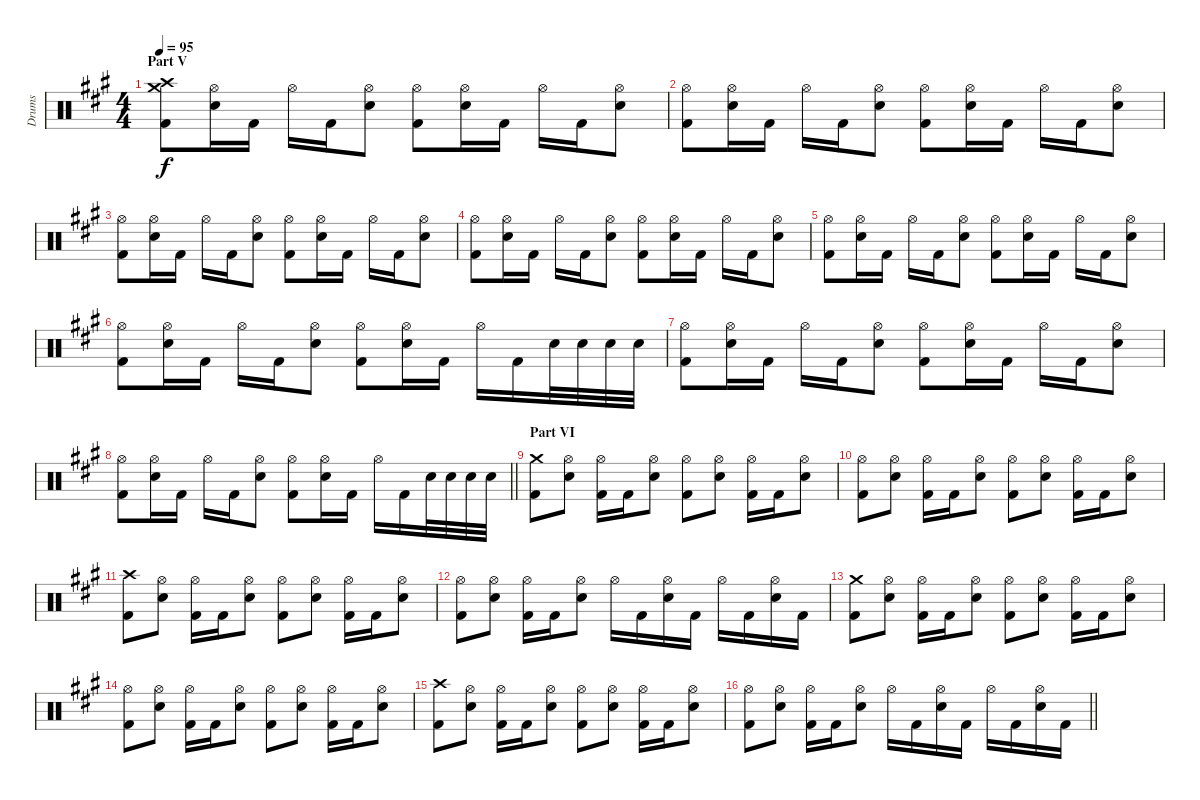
\track ("Drums" "Drums") {instrument percussion}
\staff {score}
\articulation defaults
\ts (4 4)
\section ("" "Part V")
\tempo 95
\clef neutral
\ks a
("Crash high (hit)" "Crash medium (hit)" "Kick (hit) 2").8{dy f} ("Hi-Hat (open)" "Electric Snare (hit)").16 "Kick (hit) 2".16 "Hi-Hat (open)".16 "Kick (hit) 2".16 ("Hi-Hat (open)" "Electric Snare (hit)").8 ("Hi-Hat (open)" "Kick (hit) 2").8 ("Hi-Hat (open)" "Electric Snare (hit)").16 "Kick (hit) 2".16 "Hi-Hat (open)".16 "Kick (hit) 2".16 ("Hi-Hat (open)" "Electric Snare (hit)").8 |
("Hi-Hat (open)" "Kick (hit) 2").8 ("Hi-Hat (open)" "Electric Snare (hit)").16 "Kick (hit) 2".16 "Hi-Hat (open)".16 "Kick (hit) 2".16 ("Hi-Hat (open)" "Electric Snare (hit)").8 ("Hi-Hat (open)" "Kick (hit) 2").8 ("Hi-Hat (open)" "Electric Snare (hit)").16 "Kick (hit) 2".16 "Hi-Hat (open)".16 "Kick (hit) 2".16 ("Hi-Hat (open)" "Electric Snare (hit)").8 |
("Hi-Hat (open)" "Kick (hit) 2").8 ("Hi-Hat (open)" "Electric Snare (hit)").16 "Kick (hit) 2".16 "Hi-Hat (open)".16 "Kick (hit) 2".16 ("Hi-Hat (open)" "Electric Snare (hit)").8 ("Hi-Hat (open)" "Kick (hit) 2").8 ("Hi-Hat (open)" "Electric Snare (hit)").16 "Kick (hit) 2".16 "Hi-Hat (open)".16 "Kick (hit) 2".16 ("Hi-Hat (open)" "Electric Snare (hit)").8 |
("Hi-Hat (open)" "Kick (hit) 2").8 ("Hi-Hat (open)" "Electric Snare (hit)").16 "Kick (hit) 2".16 "Hi-Hat (open)".16 "Kick (hit) 2".16 ("Hi-Hat (open)" "Electric Snare (hit)").8 ("Hi-Hat (open)" "Kick (hit) 2").8 ("Hi-Hat (open)" "Electric Snare (hit)").16 "Kick (hit) 2".16 "Hi-Hat (open)".16 "Kick (hit) 2".16 ("Hi-Hat (open)" "Electric Snare (hit)").8 |
("Hi-Hat (open)" "Kick (hit) 2").8 ("Hi-Hat (open)" "Electric Snare (hit)").16 "Kick (hit) 2".16 "Hi-Hat (open)".16 "Kick (hit) 2".16 ("Hi-Hat (open)" "Electric Snare (hit)").8 ("Hi-Hat (open)" "Kick (hit) 2").8 ("Hi-Hat (open)" "Electric Snare (hit)").16 "Kick (hit) 2".16 "Hi-Hat (open)".16 "Kick (hit) 2".16 ("Hi-Hat (open)" "Electric Snare (hit)").8 |
("Hi-Hat (open)" "Kick (hit) 2").8 ("Hi-Hat (open)" "Electric Snare (hit)").16 "Kick (hit) 2".16 "Hi-Hat (open)".16 "Kick (hit) 2".16 ("Hi-Hat (open)" "Electric Snare (hit)").8 ("Hi-Hat (open)" "Kick (hit) 2").8 ("Hi-Hat (open)" "Electric Snare (hit)").16 "Kick (hit) 2".16 "Hi-Hat (open)".16 "Kick (hit) 2".16 "Electric Snare (hit)".32 "Electric Snare (hit)".32 "Electric Snare (hit)".32 "Electric Snare (hit)".32 |
("Hi-Hat (open)" "Kick (hit) 2").8 ("Hi-Hat (open)" "Electric Snare (hit)").16 "Kick (hit) 2".16 "Hi-Hat (open)".16 "Kick (hit) 2".16 ("Hi-Hat (open)" "Electric Snare (hit)").8 ("Hi-Hat (open)" "Kick (hit) 2").8 ("Hi-Hat (open)" "Electric Snare (hit)").16 "Kick (hit) 2".16 "Hi-Hat (open)".16 "Kick (hit) 2".16 ("Hi-Hat (open)" "Electric Snare (hit)").8 |
\barLineRight lightlight
("Hi-Hat (open)" "Kick (hit) 2").8 ("Hi-Hat (open)" "Electric Snare (hit)").16 "Kick (hit) 2".16 "Hi-Hat (open)".16 "Kick (hit) 2".16 ("Hi-Hat (open)" "Electric Snare (hit)").8 ("Hi-Hat (open)" "Kick (hit) 2").8 ("Hi-Hat (open)" "Electric Snare (hit)").16 "Kick (hit) 2".16 "Hi-Hat (open)".16 "Kick (hit) 2".16 "Electric Snare (hit)".32 "Electric Snare (hit)".32 "Electric Snare (hit)".32 "Electric Snare (hit)".32 |
\section ("" "Part VI")
("Crash medium (hit)" "Kick (hit) 2").8 ("Hi-Hat (open)" "Electric Snare (hit)").8 ("Hi-Hat (open)" "Kick (hit) 2").16 "Kick (hit) 2".16 ("Hi-Hat (open)" "Electric Snare (hit)").8 ("Hi-Hat (open)" "Kick (hit) 2").8 ("Hi-Hat (open)" "Electric Snare (hit)").8 ("Hi-Hat (open)" "Kick (hit) 2").16 "Kick (hit) 2".16 ("Hi-Hat (open)" "Electric Snare (hit)").8 |
("Hi-Hat (open)" "Kick (hit) 2").8 ("Hi-Hat (open)" "Electric Snare (hit)").8 ("Hi-Hat (open)" "Kick (hit) 2").16 "Kick (hit) 2".16 ("Hi-Hat (open)" "Electric Snare (hit)").8 ("Hi-Hat (open)" "Kick (hit) 2").8 ("Hi-Hat (open)" "Electric Snare (hit)").8 ("Hi-Hat (open)" "Kick (hit) 2").16 "Kick (hit) 2".16 ("Hi-Hat (open)" "Electric Snare (hit)").8 |
("Crash high (hit)" "Kick (hit) 2").8 ("Hi-Hat (open)" "Electric Snare (hit)").8 ("Hi-Hat (open)" "Kick (hit) 2").16 "Kick (hit) 2".16 ("Hi-Hat (open)" "Electric Snare (hit)").8 ("Hi-Hat (open)" "Kick (hit) 2").8 ("Hi-Hat (open)" "Electric Snare (hit)").8 ("Hi-Hat (open)" "Kick (hit) 2").16 "Kick (hit) 2".16 ("Hi-Hat (open)" "Electric Snare (hit)").8 |
("Hi-Hat (open)" "Kick (hit) 2").8 ("Hi-Hat (open)" "Electric Snare (hit)").8 ("Hi-Hat (open)" "Kick (hit) 2").16 "Kick (hit) 2".16 ("Hi-Hat (open)" "Electric Snare (hit)").8 "Hi-Hat (open)".16 "Kick (hit) 2".16 ("Hi-Hat (open)" "Electric Snare (hit)").16 "Kick (hit) 2".16 "Hi-Hat (open)".16 "Kick (hit) 2".16 ("Hi-Hat (open)" "Electric Snare (hit)").16 "Kick (hit) 2".16 |
("Crash medium (hit)" "Kick (hit) 2").8 ("Hi-Hat (open)" "Electric Snare (hit)").8 ("Hi-Hat (open)" "Kick (hit) 2").16 "Kick (hit) 2".16 ("Hi-Hat (open)" "Electric Snare (hit)").8 ("Hi-Hat (open)" "Kick (hit) 2").8 ("Hi-Hat (open)" "Electric Snare (hit)").8 ("Hi-Hat (open)" "Kick (hit) 2").16 "Kick (hit) 2".16 ("Hi-Hat (open)" "Electric Snare (hit)").8 |
("Hi-Hat (open)" "Kick (hit) 2").8 ("Hi-Hat (open)" "Electric Snare (hit)").8 ("Hi-Hat (open)" "Kick (hit) 2").16 "Kick (hit) 2".16 ("Hi-Hat (open)" "Electric Snare (hit)").8 ("Hi-Hat (open)" "Kick (hit) 2").8 ("Hi-Hat (open)" "Electric Snare (hit)").8 ("Hi-Hat (open)" "Kick (hit) 2").16 "Kick (hit) 2".16 ("Hi-Hat (open)" "Electric Snare (hit)").8 |
("Crash high (hit)" "Kick (hit) 2").8 ("Hi-Hat (open)" "Electric Snare (hit)").8 ("Hi-Hat (open)" "Kick (hit) 2").16 "Kick (hit) 2".16 ("Hi-Hat (open)" "Electric Snare (hit)").8 ("Hi-Hat (open)" "Kick (hit) 2").8 ("Hi-Hat (open)" "Electric Snare (hit)").8 ("Hi-Hat (open)" "Kick (hit) 2").16 "Kick (hit) 2".16 ("Hi-Hat (open)" "Electric Snare (hit)").8 |
\barLineRight lightlight
("Hi-Hat (open)" "Kick (hit) 2").8 ("Hi-Hat (open)" "Electric Snare (hit)").8 ("Hi-Hat (open)" "Kick (hit) 2").16 "Kick (hit) 2".16 ("Hi-Hat (open)" "Electric Snare (hit)").8 "Hi-Hat (open)".16 "Kick (hit) 2".16 ("Hi-Hat (open)" "Electric Snare (hit)").16 "Kick (hit) 2".16 "Hi-Hat (open)".16 "Kick (hit) 2".16 ("Hi-Hat (open)" "Electric Snare (hit)").16 "Kick (hit) 2".16
